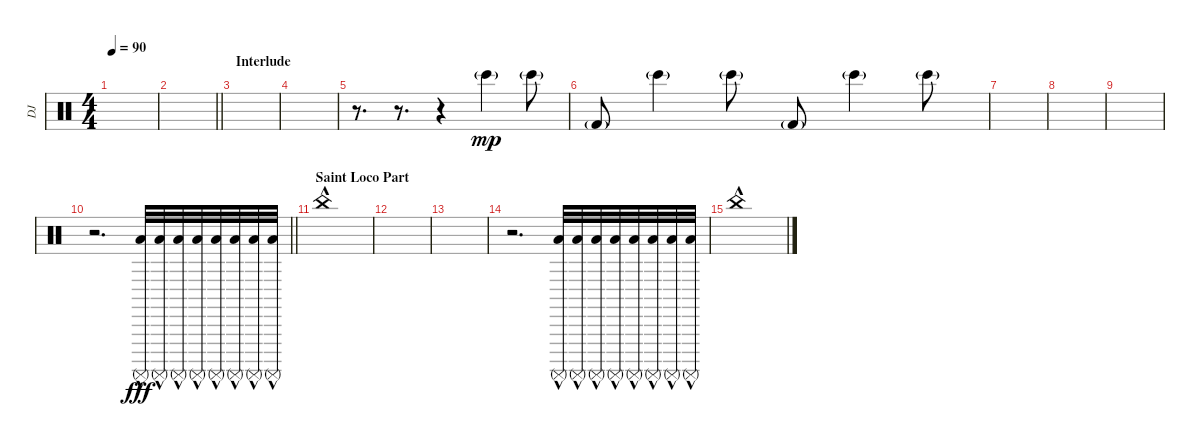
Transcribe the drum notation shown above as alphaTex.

\track ("DJ" "DJ") {instrument percussion}
\staff {score}
\articulation defaults
\ts (4 4)
\tempo 90
\clef neutral
\ks c
|
\barLineRight lightlight
|
\section ("" "Interlude")
|
|
r.8{d} r.8{d} r.4 "Bongo High (hit)"{g}.4{dy mp} "Bongo High (hit)"{g}.8 |
"Kick (hit) 2"{g}.8 "Bongo High (hit)"{g}.4 "Bongo High (hit)"{g}.8 "Kick (hit) 2"{g}.8 "Bongo High (hit)"{g}.4 "Bongo High (hit)"{g}.8 |
|
|
|
\barLineRight lightlight
r.2{d} ("Surdo (mute)"{hac} "Low Floor Tom (hit)").32{dy fff} ("Surdo (mute)"{hac} "Low Floor Tom (hit)").32 ("Surdo (mute)"{hac} "Low Floor Tom (hit)").32 ("Surdo (mute)"{hac} "Low Floor Tom (hit)").32 ("Surdo (mute)"{hac} "Low Floor Tom (hit)").32 ("Surdo (mute)"{hac} "Low Floor Tom (hit)").32 ("Surdo (mute)"{hac} "Low Floor Tom (hit)").32 ("Surdo (mute)"{hac} "Low Floor Tom (hit)").32 |
\section ("" "Saint Loco Part")
"China (hit)"{hac}.1 |
|
|
r.2{d} ("Surdo (mute)"{hac} "Low Floor Tom (hit)").32 ("Surdo (mute)"{hac} "Low Floor Tom (hit)").32 ("Surdo (mute)"{hac} "Low Floor Tom (hit)").32 ("Surdo (mute)"{hac} "Low Floor Tom (hit)").32 ("Surdo (mute)"{hac} "Low Floor Tom (hit)").32 ("Surdo (mute)"{hac} "Low Floor Tom (hit)").32 ("Surdo (mute)"{hac} "Low Floor Tom (hit)").32 ("Surdo (mute)"{hac} "Low Floor Tom (hit)").32 |
"China (hit)"{hac}.1
